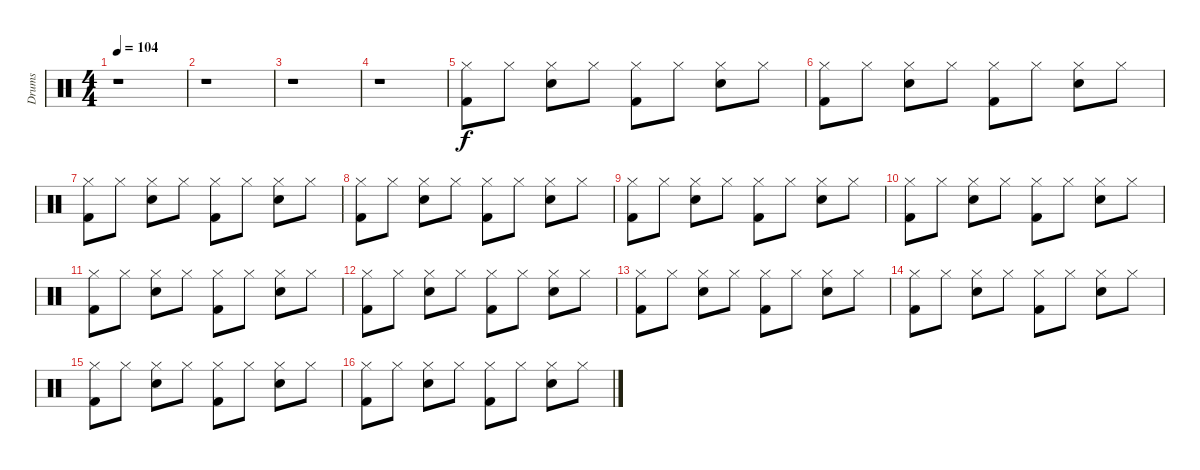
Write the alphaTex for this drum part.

\track ("Drums" "Drums") {instrument percussion}
\staff {score}
\articulation defaults
\ts (4 4)
\tempo 104
\clef neutral
\ks c
r.1{dy f} |
r.1 |
r.1 |
r.1 |
("Hi-Hat (closed)" "Kick (hit) 2").8 "Hi-Hat (closed)".8 ("Hi-Hat (closed)" "Snare (hit) 2").8 "Hi-Hat (closed)".8 ("Hi-Hat (closed)" "Kick (hit) 2").8 "Hi-Hat (closed)".8 ("Hi-Hat (closed)" "Snare (hit) 2").8 "Hi-Hat (closed)".8 |
("Hi-Hat (closed)" "Kick (hit) 2").8 "Hi-Hat (closed)".8 ("Hi-Hat (closed)" "Snare (hit) 2").8 "Hi-Hat (closed)".8 ("Hi-Hat (closed)" "Kick (hit) 2").8 "Hi-Hat (closed)".8 ("Hi-Hat (closed)" "Snare (hit) 2").8 "Hi-Hat (closed)".8 |
("Hi-Hat (closed)" "Kick (hit) 2").8 "Hi-Hat (closed)".8 ("Hi-Hat (closed)" "Snare (hit) 2").8 "Hi-Hat (closed)".8 ("Hi-Hat (closed)" "Kick (hit) 2").8 "Hi-Hat (closed)".8 ("Hi-Hat (closed)" "Snare (hit) 2").8 "Hi-Hat (closed)".8 |
("Hi-Hat (closed)" "Kick (hit) 2").8 "Hi-Hat (closed)".8 ("Hi-Hat (closed)" "Snare (hit) 2").8 "Hi-Hat (closed)".8 ("Hi-Hat (closed)" "Kick (hit) 2").8 "Hi-Hat (closed)".8 ("Hi-Hat (closed)" "Snare (hit) 2").8 "Hi-Hat (closed)".8 |
("Hi-Hat (closed)" "Kick (hit) 2").8 "Hi-Hat (closed)".8 ("Hi-Hat (closed)" "Snare (hit) 2").8 "Hi-Hat (closed)".8 ("Hi-Hat (closed)" "Kick (hit) 2").8 "Hi-Hat (closed)".8 ("Hi-Hat (closed)" "Snare (hit) 2").8 "Hi-Hat (closed)".8 |
("Hi-Hat (closed)" "Kick (hit) 2").8 "Hi-Hat (closed)".8 ("Hi-Hat (closed)" "Snare (hit) 2").8 "Hi-Hat (closed)".8 ("Hi-Hat (closed)" "Kick (hit) 2").8 "Hi-Hat (closed)".8 ("Hi-Hat (closed)" "Snare (hit) 2").8 "Hi-Hat (closed)".8 |
("Hi-Hat (closed)" "Kick (hit) 2").8 "Hi-Hat (closed)".8 ("Hi-Hat (closed)" "Snare (hit) 2").8 "Hi-Hat (closed)".8 ("Hi-Hat (closed)" "Kick (hit) 2").8 "Hi-Hat (closed)".8 ("Hi-Hat (closed)" "Snare (hit) 2").8 "Hi-Hat (closed)".8 |
("Hi-Hat (closed)" "Kick (hit) 2").8 "Hi-Hat (closed)".8 ("Hi-Hat (closed)" "Snare (hit) 2").8 "Hi-Hat (closed)".8 ("Hi-Hat (closed)" "Kick (hit) 2").8 "Hi-Hat (closed)".8 ("Hi-Hat (closed)" "Snare (hit) 2").8 "Hi-Hat (closed)".8 |
("Hi-Hat (closed)" "Kick (hit) 2").8 "Hi-Hat (closed)".8 ("Hi-Hat (closed)" "Snare (hit) 2").8 "Hi-Hat (closed)".8 ("Hi-Hat (closed)" "Kick (hit) 2").8 "Hi-Hat (closed)".8 ("Hi-Hat (closed)" "Snare (hit) 2").8 "Hi-Hat (closed)".8 |
("Hi-Hat (closed)" "Kick (hit) 2").8 "Hi-Hat (closed)".8 ("Hi-Hat (closed)" "Snare (hit) 2").8 "Hi-Hat (closed)".8 ("Hi-Hat (closed)" "Kick (hit) 2").8 "Hi-Hat (closed)".8 ("Hi-Hat (closed)" "Snare (hit) 2").8 "Hi-Hat (closed)".8 |
("Hi-Hat (closed)" "Kick (hit) 2").8 "Hi-Hat (closed)".8 ("Hi-Hat (closed)" "Snare (hit) 2").8 "Hi-Hat (closed)".8 ("Hi-Hat (closed)" "Kick (hit) 2").8 "Hi-Hat (closed)".8 ("Hi-Hat (closed)" "Snare (hit) 2").8 "Hi-Hat (closed)".8 |
("Hi-Hat (closed)" "Kick (hit) 2").8 "Hi-Hat (closed)".8 ("Hi-Hat (closed)" "Snare (hit) 2").8 "Hi-Hat (closed)".8 ("Hi-Hat (closed)" "Kick (hit) 2").8 "Hi-Hat (closed)".8 ("Hi-Hat (closed)" "Snare (hit) 2").8 "Hi-Hat (closed)".8
